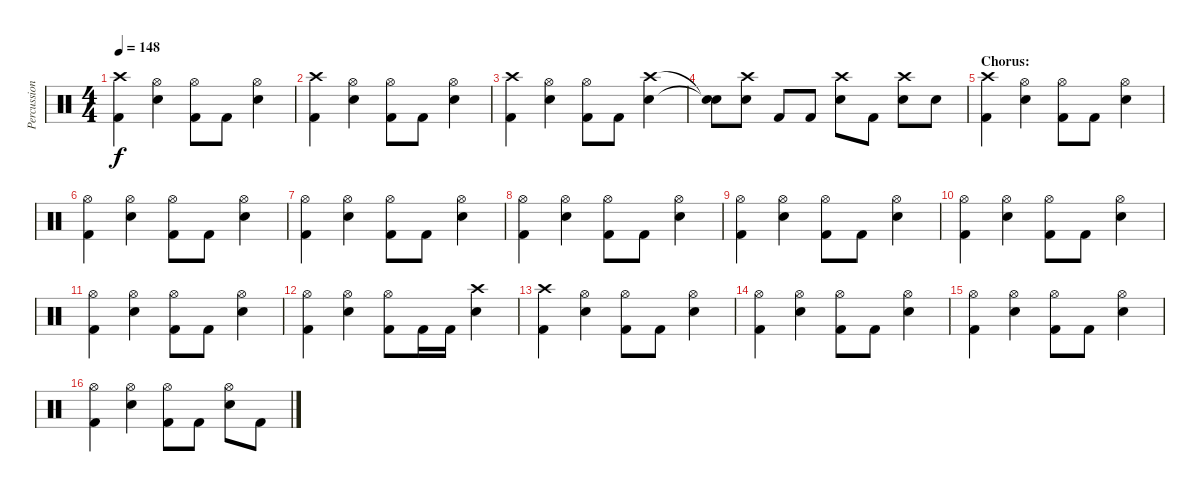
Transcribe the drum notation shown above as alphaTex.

\track ("Percussion" "Percussion") {instrument percussion}
\staff {score}
\articulation defaults
\ts (4 4)
\tempo 148
\clef neutral
\ks c
("Crash high (hit)" "Kick (hit) 2").4{dy f} ("Hi-Hat (open)" "Electric Snare (hit)").4 ("Hi-Hat (open)" "Kick (hit) 2").8 "Kick (hit) 2".8 ("Hi-Hat (open)" "Electric Snare (hit)").4 |
("Crash high (hit)" "Kick (hit) 2").4 ("Hi-Hat (open)" "Electric Snare (hit)").4 ("Hi-Hat (open)" "Kick (hit) 2").8 "Kick (hit) 2".8 ("Hi-Hat (open)" "Electric Snare (hit)").4 |
("Crash high (hit)" "Kick (hit) 2").4 ("Hi-Hat (open)" "Electric Snare (hit)").4 ("Hi-Hat (open)" "Kick (hit) 2").8 "Kick (hit) 2".8 ("Crash high (hit)" "Electric Snare (hit)").4 |
("Snare (hit)"{t} "Snare (hit)"{t}).8 ("Crash high (hit)" "Electric Snare (hit)").8 "Kick (hit) 2".8 "Kick (hit) 2".8 ("Crash high (hit)" "Electric Snare (hit)").8 "Kick (hit) 2".8 ("Crash high (hit)" "Electric Snare (hit)").8 "Electric Snare (hit)".8 |
\section ("" "Chorus:")
("Crash high (hit)" "Kick (hit) 2").4 ("Hi-Hat (open)" "Electric Snare (hit)").4 ("Hi-Hat (open)" "Kick (hit) 2").8 "Kick (hit) 2".8 ("Hi-Hat (open)" "Electric Snare (hit)").4 |
("Hi-Hat (open)" "Kick (hit) 2").4 ("Hi-Hat (open)" "Electric Snare (hit)").4 ("Hi-Hat (open)" "Kick (hit) 2").8 "Kick (hit) 2".8 ("Hi-Hat (open)" "Electric Snare (hit)").4 |
("Hi-Hat (open)" "Kick (hit) 2").4 ("Hi-Hat (open)" "Electric Snare (hit)").4 ("Hi-Hat (open)" "Kick (hit) 2").8 "Kick (hit) 2".8 ("Hi-Hat (open)" "Electric Snare (hit)").4 |
("Hi-Hat (open)" "Kick (hit) 2").4 ("Hi-Hat (open)" "Electric Snare (hit)").4 ("Hi-Hat (open)" "Kick (hit) 2").8 "Kick (hit) 2".8 ("Hi-Hat (open)" "Electric Snare (hit)").4 |
("Hi-Hat (open)" "Kick (hit) 2").4 ("Hi-Hat (open)" "Electric Snare (hit)").4 ("Hi-Hat (open)" "Kick (hit) 2").8 "Kick (hit) 2".8 ("Hi-Hat (open)" "Electric Snare (hit)").4 |
("Hi-Hat (open)" "Kick (hit) 2").4 ("Hi-Hat (open)" "Electric Snare (hit)").4 ("Hi-Hat (open)" "Kick (hit) 2").8 "Kick (hit) 2".8 ("Hi-Hat (open)" "Electric Snare (hit)").4 |
("Hi-Hat (open)" "Kick (hit) 2").4 ("Hi-Hat (open)" "Electric Snare (hit)").4 ("Hi-Hat (open)" "Kick (hit) 2").8 "Kick (hit) 2".8 ("Hi-Hat (open)" "Electric Snare (hit)").4 |
("Hi-Hat (open)" "Kick (hit) 2").4 ("Hi-Hat (open)" "Electric Snare (hit)").4 ("Hi-Hat (open)" "Kick (hit) 2").8 "Kick (hit) 2".16 "Kick (hit) 2".16 ("Crash high (hit)" "Electric Snare (hit)").4 |
("Crash high (hit)" "Kick (hit) 2").4 ("Hi-Hat (open)" "Electric Snare (hit)").4 ("Hi-Hat (open)" "Kick (hit) 2").8 "Kick (hit) 2".8 ("Hi-Hat (open)" "Electric Snare (hit)").4 |
("Hi-Hat (open)" "Kick (hit) 2").4 ("Hi-Hat (open)" "Electric Snare (hit)").4 ("Hi-Hat (open)" "Kick (hit) 2").8 "Kick (hit) 2".8 ("Hi-Hat (open)" "Electric Snare (hit)").4 |
("Hi-Hat (open)" "Kick (hit) 2").4 ("Hi-Hat (open)" "Electric Snare (hit)").4 ("Hi-Hat (open)" "Kick (hit) 2").8 "Kick (hit) 2".8 ("Hi-Hat (open)" "Electric Snare (hit)").4 |
("Hi-Hat (open)" "Kick (hit) 2").4 ("Hi-Hat (open)" "Electric Snare (hit)").4 ("Hi-Hat (open)" "Kick (hit) 2").8 "Kick (hit) 2".8 ("Hi-Hat (open)" "Electric Snare (hit)").8 "Kick (hit) 2".8
